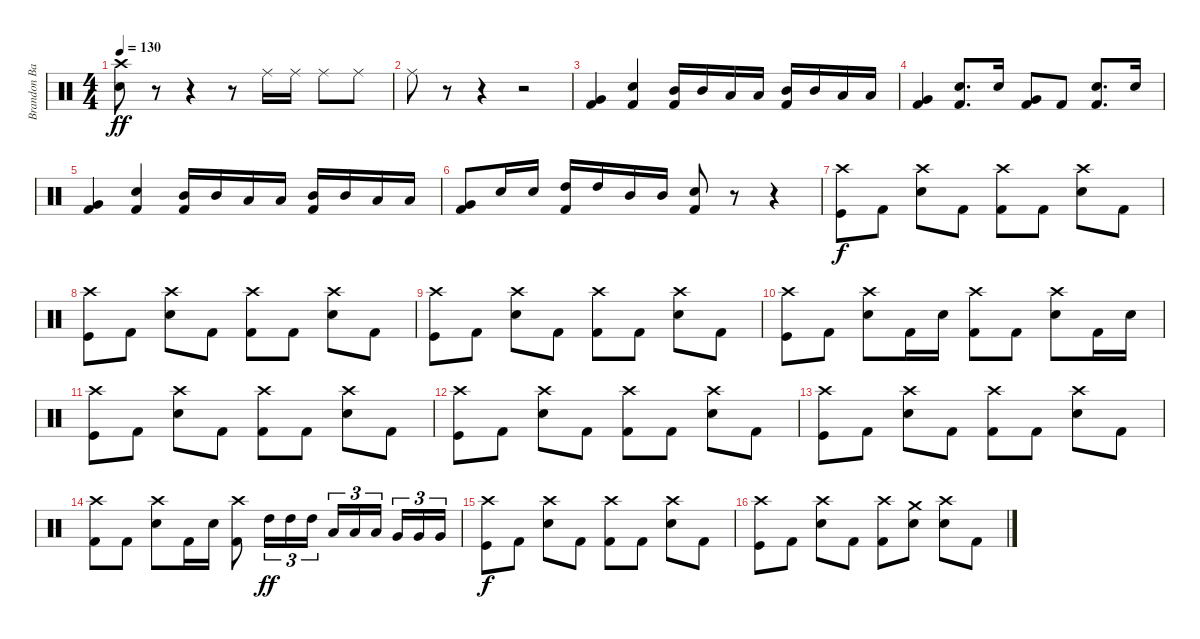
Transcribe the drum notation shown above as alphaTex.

\track ("Brandon Barnes - Drums" "Brandon Ba") {instrument percussion}
\staff {score}
\articulation defaults
\ts (4 4)
\tempo 130
\clef neutral
\ks c
("Snare (hit) 2" "Crash high (hit)").8{dy ff} r.8 r.4 r.8 "Ride (middle)".16 "Ride (middle)".16 "Ride (middle)".8 "Ride (middle)".8 |
"Ride (middle)".8 r.8 r.4 r.2 |
("Kick (hit) 2" "Very Low Tom (hit)").4 ("Snare (hit) 2" "Kick (hit) 2").4 ("Kick (hit) 2" "Mid Tom (hit)").16 "Mid Tom (hit)".16 "Low Tom (hit)".16 "Low Tom (hit)".16 ("Mid Tom (hit)" "Kick (hit) 2").16 "Mid Tom (hit)".16 "Low Tom (hit)".16 "Low Tom (hit)".16 |
("Kick (hit) 2" "Very Low Tom (hit)").4 ("Snare (hit) 2" "Kick (hit) 2").8{d} "Snare (hit) 2".16 ("Very Low Tom (hit)" "Kick (hit) 2").8 "Kick (hit) 2".8 ("Kick (hit) 2" "Snare (hit) 2").8{d} "Snare (hit) 2".16 |
("Kick (hit) 2" "Very Low Tom (hit)").4 ("Snare (hit) 2" "Kick (hit) 2").4 ("Kick (hit) 2" "Mid Tom (hit)").16 "Mid Tom (hit)".16 "Low Tom (hit)".16 "Low Tom (hit)".16 ("Mid Tom (hit)" "Kick (hit) 2").16 "Mid Tom (hit)".16 "Low Tom (hit)".16 "Low Tom (hit)".16 |
("Very Low Tom (hit)" "Kick (hit) 2").8 "Snare (hit) 2".16 "Snare (hit) 2".16 ("High Tom (hit)" "Kick (hit) 2").16 "High Tom (hit)".16 "Mid Tom (hit)".16 "Mid Tom (hit)".16 ("Kick (hit) 2" "Snare (hit) 2").8 r.8 r.4 |
("Crash high (hit)" "Kick (hit)").8{dy f} "Kick (hit) 2".8 ("Snare (hit) 2" "Crash high (hit)").8 "Kick (hit) 2".8 ("Kick (hit) 2" "Crash high (hit)").8 "Kick (hit) 2".8 ("Electric Snare (hit)" "Crash high (hit)").8 "Kick (hit) 2".8 |
("Crash high (hit)" "Kick (hit)").8 "Kick (hit) 2".8 ("Snare (hit) 2" "Crash high (hit)").8 "Kick (hit) 2".8 ("Kick (hit) 2" "Crash high (hit)").8 "Kick (hit) 2".8 ("Electric Snare (hit)" "Crash high (hit)").8 "Kick (hit) 2".8 |
("Crash high (hit)" "Kick (hit)").8 "Kick (hit) 2".8 ("Snare (hit) 2" "Crash high (hit)").8 "Kick (hit) 2".8 ("Kick (hit) 2" "Crash high (hit)").8 "Kick (hit) 2".8 ("Electric Snare (hit)" "Crash high (hit)").8 "Kick (hit) 2".8 |
("Crash high (hit)" "Kick (hit)").8 "Kick (hit) 2".8 ("Snare (hit) 2" "Crash high (hit)").8 "Kick (hit) 2".16 "Snare (hit) 2".16 ("Kick (hit) 2" "Crash high (hit)").8 "Kick (hit) 2".8 ("Electric Snare (hit)" "Crash high (hit)").8 "Kick (hit) 2".16 "Snare (hit) 2".16 |
("Crash high (hit)" "Kick (hit)").8 "Kick (hit) 2".8 ("Snare (hit) 2" "Crash high (hit)").8 "Kick (hit) 2".8 ("Kick (hit) 2" "Crash high (hit)").8 "Kick (hit) 2".8 ("Electric Snare (hit)" "Crash high (hit)").8 "Kick (hit) 2".8 |
("Crash high (hit)" "Kick (hit)").8 "Kick (hit) 2".8 ("Snare (hit) 2" "Crash high (hit)").8 "Kick (hit) 2".8 ("Kick (hit) 2" "Crash high (hit)").8 "Kick (hit) 2".8 ("Electric Snare (hit)" "Crash high (hit)").8 "Kick (hit) 2".8 |
("Crash high (hit)" "Kick (hit)").8 "Kick (hit) 2".8 ("Snare (hit) 2" "Crash high (hit)").8 "Kick (hit) 2".8 ("Kick (hit) 2" "Crash high (hit)").8 "Kick (hit) 2".8 ("Electric Snare (hit)" "Crash high (hit)").8 "Kick (hit) 2".8 |
("Kick (hit) 2" "Crash high (hit)").8 "Kick (hit) 2".8 ("Electric Snare (hit)" "Crash high (hit)").8 "Kick (hit) 2".16 "Snare (hit) 2".16 ("Crash high (hit)" "Kick (hit) 2").8 "High Tom (hit)".16{tu (3 2) dy ff} "High Tom (hit)".16{tu (3 2)} "High Tom (hit)".16{tu (3 2)} "Low Tom (hit)".16{tu (3 2)} "Low Tom (hit)".16{tu (3 2)} "Low Tom (hit)".16{tu (3 2) beam splitsecondary} "Very Low Tom (hit)".16{tu (3 2)} "Very Low Tom (hit)".16{tu (3 2)} "Very Low Tom (hit)".16{tu (3 2)} |
("Crash high (hit)" "Kick (hit)").8{dy f} "Kick (hit) 2".8 ("Snare (hit) 2" "Crash high (hit)").8 "Kick (hit) 2".8 ("Kick (hit) 2" "Crash high (hit)").8 "Kick (hit) 2".8 ("Electric Snare (hit)" "Crash high (hit)").8 "Kick (hit) 2".8 |
("Crash high (hit)" "Kick (hit)").8 "Kick (hit) 2".8 ("Snare (hit) 2" "Crash high (hit)").8 "Kick (hit) 2".8 ("Kick (hit) 2" "Crash high (hit)").8 ("Snare (hit) 2" "Crash medium (hit)").8 ("Electric Snare (hit)" "Crash high (hit)").8 "Kick (hit) 2".8
